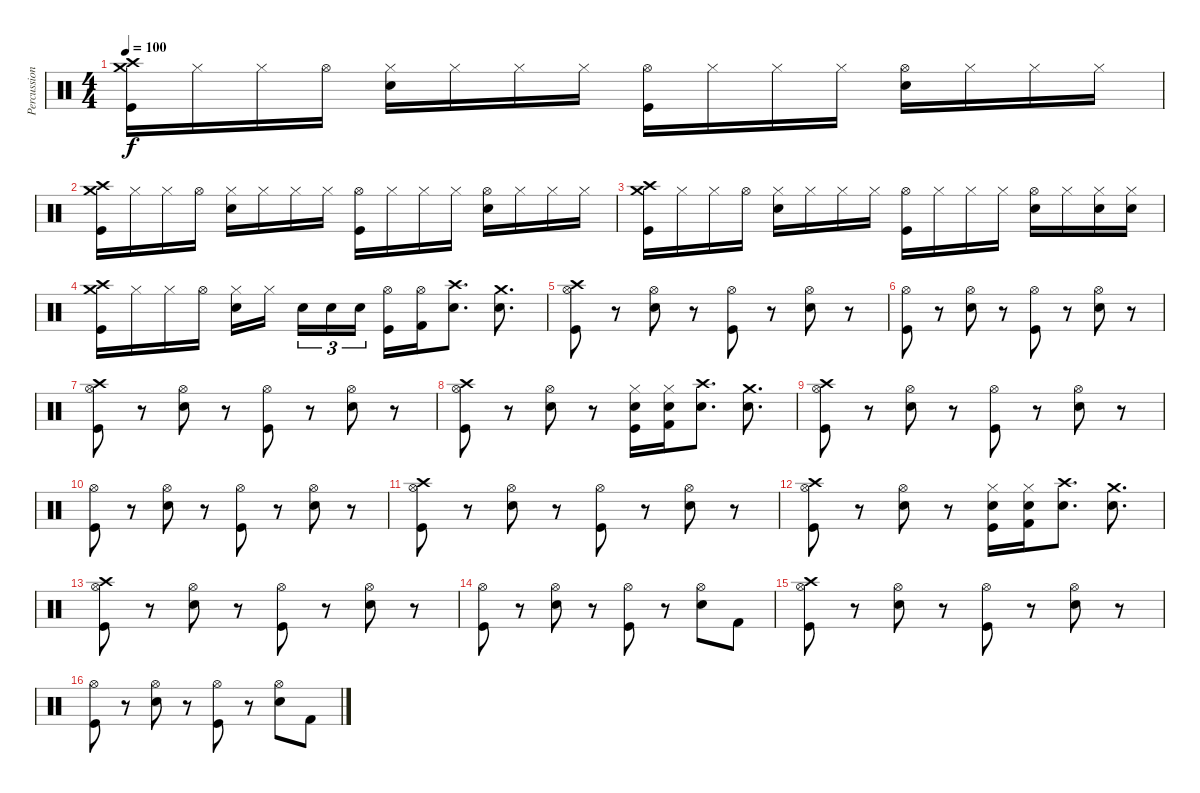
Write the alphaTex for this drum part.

\track ("Percussions" "Percussion") {instrument percussion}
\staff {score}
\articulation defaults
\ts (4 4)
\tempo 100
\clef neutral
\ks c
("Crash medium (hit)" "Crash high (hit)" "Kick (hit)").16{dy f} "Hi-Hat (closed)".16 "Hi-Hat (closed)".16 "Hi-Hat (open)".16 ("Hi-Hat (closed)" "Snare (hit) 2").16 "Hi-Hat (closed)".16 "Hi-Hat (closed)".16 "Hi-Hat (closed)".16 ("Hi-Hat (open)" "Kick (hit)").16 "Hi-Hat (closed)".16 "Hi-Hat (closed)".16 "Hi-Hat (closed)".16 ("Hi-Hat (open)" "Snare (hit) 2").16 "Hi-Hat (closed)".16 "Hi-Hat (closed)".16 "Hi-Hat (closed)".16 |
("Crash high (hit)" "Crash medium (hit)" "Kick (hit)").16 "Hi-Hat (closed)".16 "Hi-Hat (closed)".16 "Hi-Hat (open)".16 ("Hi-Hat (closed)" "Snare (hit) 2").16 "Hi-Hat (closed)".16 "Hi-Hat (closed)".16 "Hi-Hat (closed)".16 ("Hi-Hat (open)" "Kick (hit)").16 "Hi-Hat (closed)".16 "Hi-Hat (closed)".16 "Hi-Hat (closed)".16 ("Hi-Hat (open)" "Snare (hit) 2").16 "Hi-Hat (closed)".16 "Hi-Hat (closed)".16 "Hi-Hat (closed)".16 |
("Crash high (hit)" "Crash medium (hit)" "Kick (hit)").16 "Hi-Hat (closed)".16 "Hi-Hat (closed)".16 "Hi-Hat (open)".16 ("Hi-Hat (closed)" "Snare (hit) 2").16 "Hi-Hat (closed)".16 "Hi-Hat (closed)".16 "Hi-Hat (closed)".16 ("Hi-Hat (open)" "Kick (hit)").16 "Hi-Hat (closed)".16 "Hi-Hat (closed)".16 "Hi-Hat (closed)".16 ("Hi-Hat (open)" "Snare (hit) 2").16 "Hi-Hat (closed)".16 ("Hi-Hat (closed)" "Snare (hit) 2").16 ("Hi-Hat (closed)" "Snare (hit) 2").16 |
("Crash high (hit)" "Crash medium (hit)" "Kick (hit)").16 "Hi-Hat (closed)".16 "Hi-Hat (closed)".16 "Hi-Hat (open)".16 ("Hi-Hat (closed)" "Snare (hit) 2").16 "Hi-Hat (closed)".16{beam splitsecondary} "Snare (hit) 2".16{tu (3 2)} "Snare (hit) 2".16{tu (3 2)} "Snare (hit) 2".16{tu (3 2)} ("Hi-Hat (open)" "Kick (hit)").16 ("Hi-Hat (open)" "Kick (hit) 2").16 ("Crash high (hit)" "Snare (hit) 2").8{d} ("Crash medium (hit)" "Snare (hit) 2").8{d} |
("Hi-Hat (open)" "Kick (hit)" "Crash high (hit)").8 r.8 ("Hi-Hat (open)" "Snare (hit) 2").8 r.8 ("Hi-Hat (open)" "Kick (hit)").8 r.8 ("Hi-Hat (open)" "Snare (hit) 2").8 r.8 |
("Hi-Hat (open)" "Kick (hit)").8 r.8 ("Hi-Hat (open)" "Snare (hit) 2").8 r.8 ("Hi-Hat (open)" "Kick (hit)").8 r.8 ("Hi-Hat (open)" "Snare (hit) 2").8 r.8 |
("Hi-Hat (open)" "Kick (hit)" "Crash high (hit)").8 r.8 ("Hi-Hat (open)" "Snare (hit) 2").8 r.8 ("Hi-Hat (open)" "Kick (hit)").8 r.8 ("Hi-Hat (open)" "Snare (hit) 2").8 r.8 |
("Hi-Hat (open)" "Kick (hit)" "Crash high (hit)").8 r.8 ("Hi-Hat (open)" "Snare (hit) 2").8 r.8 ("Hi-Hat (closed)" "Kick (hit)" "Snare (hit) 2").16 ("Hi-Hat (closed)" "Kick (hit) 2" "Snare (hit) 2").16 ("Crash high (hit)" "Snare (hit) 2").8{d} ("Crash medium (hit)" "Snare (hit) 2").8{d} |
("Hi-Hat (open)" "Kick (hit)" "Crash high (hit)").8 r.8 ("Hi-Hat (open)" "Snare (hit) 2").8 r.8 ("Hi-Hat (open)" "Kick (hit)").8 r.8 ("Hi-Hat (open)" "Snare (hit) 2").8 r.8 |
("Hi-Hat (open)" "Kick (hit)").8 r.8 ("Hi-Hat (open)" "Snare (hit) 2").8 r.8 ("Hi-Hat (open)" "Kick (hit)").8 r.8 ("Hi-Hat (open)" "Snare (hit) 2").8 r.8 |
("Hi-Hat (open)" "Kick (hit)" "Crash high (hit)").8 r.8 ("Hi-Hat (open)" "Snare (hit) 2").8 r.8 ("Hi-Hat (open)" "Kick (hit)").8 r.8 ("Hi-Hat (open)" "Snare (hit) 2").8 r.8 |
("Hi-Hat (open)" "Kick (hit)" "Crash high (hit)").8 r.8 ("Hi-Hat (open)" "Snare (hit) 2").8 r.8 ("Hi-Hat (closed)" "Kick (hit)" "Snare (hit) 2").16 ("Hi-Hat (closed)" "Kick (hit) 2" "Snare (hit) 2").16 ("Crash high (hit)" "Snare (hit) 2").8{d} ("Crash medium (hit)" "Snare (hit) 2").8{d} |
("Hi-Hat (open)" "Kick (hit)" "Crash high (hit)").8 r.8 ("Hi-Hat (open)" "Snare (hit) 2").8 r.8 ("Hi-Hat (open)" "Kick (hit)").8 r.8 ("Hi-Hat (open)" "Snare (hit) 2").8 r.8 |
("Hi-Hat (open)" "Kick (hit)").8 r.8 ("Hi-Hat (open)" "Snare (hit) 2").8 r.8 ("Hi-Hat (open)" "Kick (hit)").8 r.8 ("Hi-Hat (open)" "Snare (hit) 2").8 "Kick (hit) 2".8 |
("Hi-Hat (open)" "Kick (hit)" "Crash high (hit)").8 r.8 ("Hi-Hat (open)" "Snare (hit) 2").8 r.8 ("Hi-Hat (open)" "Kick (hit)").8 r.8 ("Hi-Hat (open)" "Snare (hit) 2").8 r.8 |
("Hi-Hat (open)" "Kick (hit)").8 r.8 ("Hi-Hat (open)" "Snare (hit) 2").8 r.8 ("Hi-Hat (open)" "Kick (hit)").8 r.8 ("Hi-Hat (open)" "Snare (hit) 2").8 "Kick (hit) 2".8
